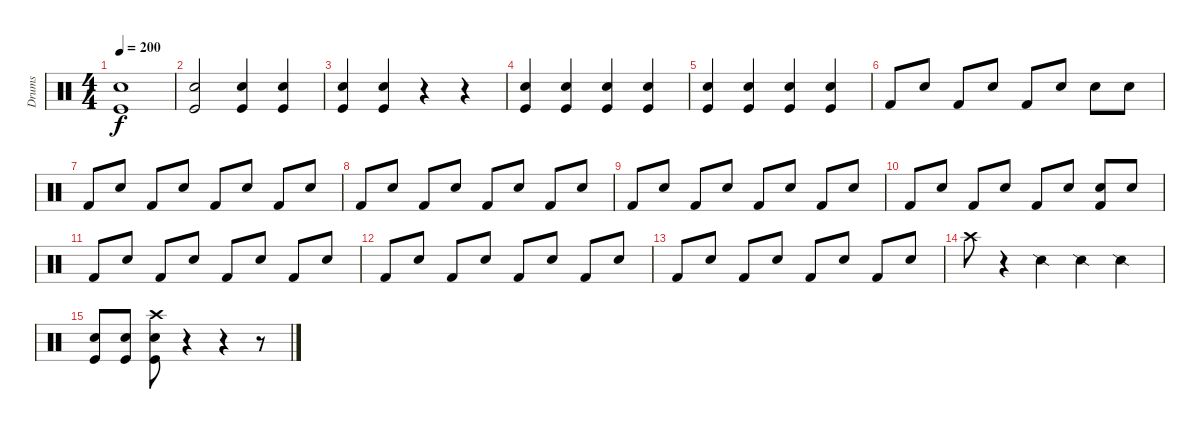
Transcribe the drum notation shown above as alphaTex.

\track ("Drums" "Drums") {instrument percussion}
\staff {score}
\articulation defaults
\ts (4 4)
\tempo 200
\clef neutral
\ks c
("Kick (hit)" "Snare (hit) 2").1{dy f} |
("Kick (hit)" "Snare (hit) 2").2 ("Kick (hit)" "Snare (hit) 2").4 ("Kick (hit)" "Snare (hit) 2").4 |
("Kick (hit)" "Snare (hit) 2").4 ("Kick (hit)" "Snare (hit) 2").4 r.4 r.4 |
("Kick (hit)" "Snare (hit) 2").4 ("Kick (hit)" "Snare (hit) 2").4 ("Kick (hit)" "Snare (hit) 2").4 ("Kick (hit)" "Snare (hit) 2").4 |
("Kick (hit)" "Snare (hit) 2").4 ("Kick (hit)" "Snare (hit) 2").4 ("Kick (hit)" "Snare (hit) 2").4 ("Kick (hit)" "Snare (hit) 2").4 |
"Kick (hit) 2".8 "Snare (hit) 2".8 "Kick (hit) 2".8 "Snare (hit) 2".8 "Kick (hit) 2".8 "Snare (hit) 2".8 "Snare (hit) 2".8 "Snare (hit) 2".8 |
"Kick (hit) 2".8 "Snare (hit) 2".8 "Kick (hit) 2".8 "Snare (hit) 2".8 "Kick (hit) 2".8 "Snare (hit) 2".8 "Kick (hit) 2".8 "Snare (hit) 2".8 |
"Kick (hit) 2".8 "Snare (hit) 2".8 "Kick (hit) 2".8 "Snare (hit) 2".8 "Kick (hit) 2".8 "Snare (hit) 2".8 "Kick (hit) 2".8 "Snare (hit) 2".8 |
"Kick (hit) 2".8 "Snare (hit) 2".8 "Kick (hit) 2".8 "Snare (hit) 2".8 "Kick (hit) 2".8 "Snare (hit) 2".8 "Kick (hit) 2".8 "Snare (hit) 2".8 |
"Kick (hit) 2".8 "Snare (hit) 2".8 "Kick (hit) 2".8 "Snare (hit) 2".8 "Kick (hit) 2".8 "Snare (hit) 2".8 ("Kick (hit) 2" "Snare (hit) 2").8 "Snare (hit) 2".8 |
"Kick (hit) 2".8 "Snare (hit) 2".8 "Kick (hit) 2".8 "Snare (hit) 2".8 "Kick (hit) 2".8 "Snare (hit) 2".8 "Kick (hit) 2".8 "Snare (hit) 2".8 |
"Kick (hit) 2".8 "Snare (hit) 2".8 "Kick (hit) 2".8 "Snare (hit) 2".8 "Kick (hit) 2".8 "Snare (hit) 2".8 "Kick (hit) 2".8 "Snare (hit) 2".8 |
"Kick (hit) 2".8 "Snare (hit) 2".8 "Kick (hit) 2".8 "Snare (hit) 2".8 "Kick (hit) 2".8 "Snare (hit) 2".8 "Kick (hit) 2".8 "Snare (hit) 2".8 |
"Crash high (hit)".8 r.4 "Snare (side stick) 2".4 "Snare (side stick) 2".4 "Snare (side stick) 2".4 |
("Kick (hit)" "Snare (hit) 2").8 ("Kick (hit)" "Snare (hit) 2").8 ("Kick (hit)" "Snare (hit) 2" "Crash high (hit)").8 r.4 r.4 r.8
